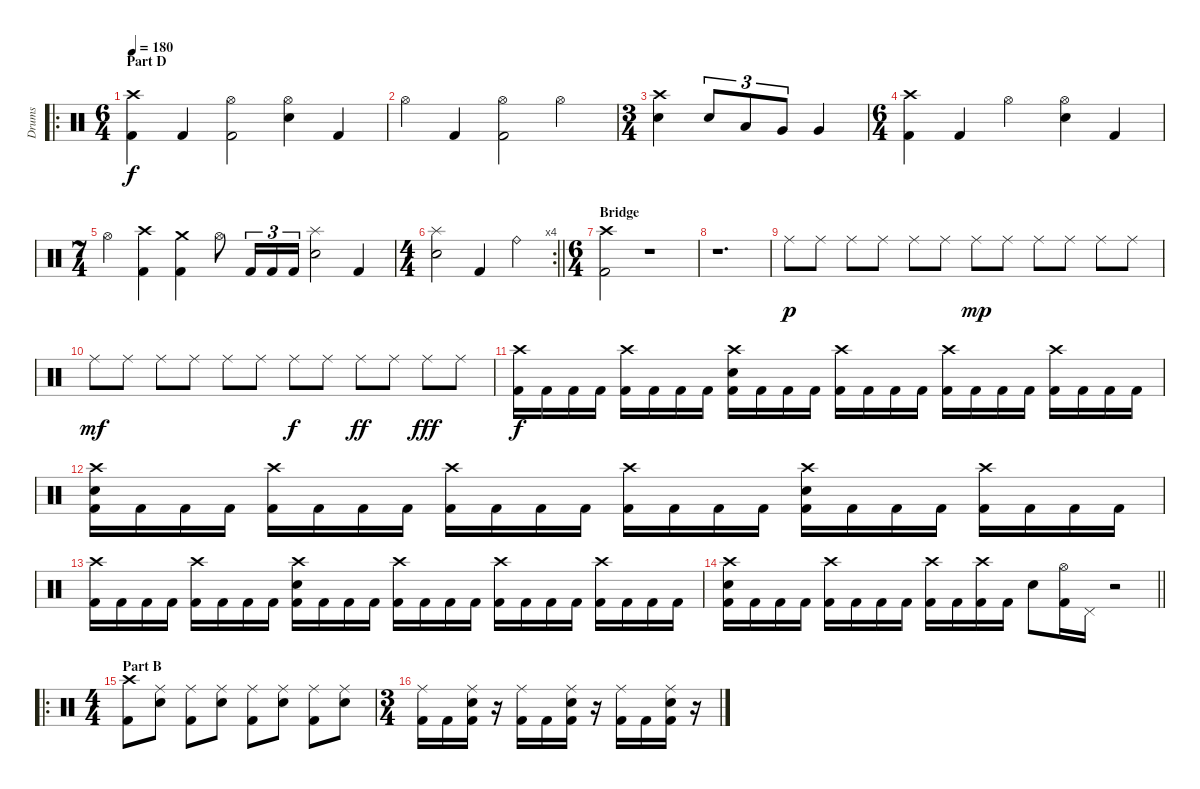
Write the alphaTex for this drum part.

\track ("Drums" "Drums") {instrument percussion}
\staff {score}
\articulation defaults
\ro
\ts (6 4)
\section ("" "Part D")
\tempo 180
\clef neutral
\ks c
("Crash high (hit)" "Kick (hit) 2").4{dy f} "Kick (hit) 2".4 ("Hi-Hat (open)" "Kick (hit) 2").2 ("Hi-Hat (open)" "Snare (hit) 2").4 "Kick (hit) 2".4 |
"Hi-Hat (open)".4 "Kick (hit) 2".4 ("Kick (hit) 2" "Hi-Hat (open)").2 "Hi-Hat (open)".2 |
\ts (3 4)
("Crash high (hit)" "Snare (hit) 2").4 "Snare (hit) 2".8{tu (3 2)} "Low Tom (hit)".8{tu (3 2)} "Very Low Tom (hit)".8{tu (3 2)} "Very Low Tom (hit)".4 |
\ts (6 4)
("Crash high (hit)" "Kick (hit) 2").4 "Kick (hit) 2".4 "Hi-Hat (open)".2 ("Hi-Hat (open)" "Snare (hit) 2").4 "Kick (hit) 2".4 |
\ts (7 4)
"Hi-Hat (open)".4 ("Kick (hit) 2" "Crash high (hit)").4 ("Kick (hit) 2" "Crash medium (hit)").4 "Hi-Hat (open)".8 "Kick (hit) 2".16{tu (3 2)} "Kick (hit) 2".16{tu (3 2)} "Kick (hit) 2".16{tu (3 2)} ("Snare (hit) 2" "Splash (hit)").2 "Kick (hit) 2".4 |
\rc 4
\ts (4 4)
\barLineRight lightlight
("Splash (hit)" "Snare (hit) 2").2 "Kick (hit) 2".4 "Ride (bell)".4 |
\ts (6 4)
\section ("" "Bridge")
("Kick (hit) 2" "Crash high (hit)").2 r.1 |
r.1{d} |
"Ride (middle)".8{dy p} "Ride (middle)".8 "Ride (middle)".8 "Ride (middle)".8 "Ride (middle)".8 "Ride (middle)".8 "Ride (middle)".8{dy mp} "Ride (middle)".8 "Ride (middle)".8 "Ride (middle)".8 "Ride (middle)".8 "Ride (middle)".8 |
"Ride (middle)".8{dy mf} "Ride (middle)".8 "Ride (middle)".8 "Ride (middle)".8 "Ride (middle)".8 "Ride (middle)".8 "Ride (middle)".8{dy f} "Ride (middle)".8 "Ride (middle)".8{dy ff} "Ride (middle)".8 "Ride (middle)".8{dy fff} "Ride (middle)".8 |
("Crash high (hit)" "Kick (hit) 2").16{dy f} "Kick (hit) 2".16 "Kick (hit) 2".16 "Kick (hit) 2".16 ("Kick (hit) 2" "Crash high (hit)").16 "Kick (hit) 2".16 "Kick (hit) 2".16 "Kick (hit) 2".16 ("Kick (hit) 2" "Crash high (hit)" "Snare (hit) 2").16 "Kick (hit) 2".16 "Kick (hit) 2".16 "Kick (hit) 2".16 ("Kick (hit) 2" "Crash high (hit)").16 "Kick (hit) 2".16 "Kick (hit) 2".16 "Kick (hit) 2".16 ("Kick (hit) 2" "Crash high (hit)").16 "Kick (hit) 2".16 "Kick (hit) 2".16 "Kick (hit) 2".16 ("Kick (hit) 2" "Crash high (hit)").16 "Kick (hit) 2".16 "Kick (hit) 2".16 "Kick (hit) 2".16 |
("Kick (hit) 2" "Crash high (hit)" "Snare (hit) 2").16 "Kick (hit) 2".16 "Kick (hit) 2".16 "Kick (hit) 2".16 ("Kick (hit) 2" "Crash high (hit)").16 "Kick (hit) 2".16 "Kick (hit) 2".16 "Kick (hit) 2".16 ("Kick (hit) 2" "Crash high (hit)").16 "Kick (hit) 2".16 "Kick (hit) 2".16 "Kick (hit) 2".16 ("Kick (hit) 2" "Crash high (hit)").16 "Kick (hit) 2".16 "Kick (hit) 2".16 "Kick (hit) 2".16 ("Kick (hit) 2" "Crash high (hit)" "Snare (hit) 2").16 "Kick (hit) 2".16 "Kick (hit) 2".16 "Kick (hit) 2".16 ("Kick (hit) 2" "Crash high (hit)").16 "Kick (hit) 2".16 "Kick (hit) 2".16 "Kick (hit) 2".16 |
("Crash high (hit)" "Kick (hit) 2").16 "Kick (hit) 2".16 "Kick (hit) 2".16 "Kick (hit) 2".16 ("Kick (hit) 2" "Crash high (hit)").16 "Kick (hit) 2".16 "Kick (hit) 2".16 "Kick (hit) 2".16 ("Kick (hit) 2" "Crash high (hit)" "Snare (hit) 2").16 "Kick (hit) 2".16 "Kick (hit) 2".16 "Kick (hit) 2".16 ("Kick (hit) 2" "Crash high (hit)").16 "Kick (hit) 2".16 "Kick (hit) 2".16 "Kick (hit) 2".16 ("Kick (hit) 2" "Crash high (hit)").16 "Kick (hit) 2".16 "Kick (hit) 2".16 "Kick (hit) 2".16 ("Kick (hit) 2" "Crash high (hit)").16 "Kick (hit) 2".16 "Kick (hit) 2".16 "Kick (hit) 2".16 |
\barLineRight lightlight
("Kick (hit) 2" "Crash high (hit)" "Snare (hit) 2").16 "Kick (hit) 2".16 "Kick (hit) 2".16 "Kick (hit) 2".16 ("Kick (hit) 2" "Crash high (hit)").16 "Kick (hit) 2".16 "Kick (hit) 2".16 "Kick (hit) 2".16 ("Kick (hit) 2" "Crash high (hit)").16 "Kick (hit) 2".16 ("Kick (hit) 2" "Crash high (hit)").16 "Kick (hit) 2".16 "Snare (hit) 2".8 ("Hi-Hat (open)" "Kick (hit) 2").16 "Pedal Hi-Hat (hit)".16 r.2 |
\ro
\ts (4 4)
\section ("" "Part B")
("Kick (hit) 2" "Crash high (hit)").8 ("Snare (hit) 2" "Ride (middle)").8 ("Kick (hit) 2" "Ride (middle)").8 ("Snare (hit) 2" "Ride (middle)").8 ("Kick (hit) 2" "Ride (middle)").8 ("Snare (hit) 2" "Ride (middle)").8 ("Kick (hit) 2" "Ride (middle)").8 ("Snare (hit) 2" "Ride (middle)").8 |
\ts (3 4)
("Kick (hit) 2" "Ride (middle)").16 "Kick (hit) 2".16 ("Kick (hit) 2" "Snare (hit) 2" "Ride (middle)").16 r.16 ("Kick (hit) 2" "Ride (middle)").16 "Kick (hit) 2".16 ("Kick (hit) 2" "Snare (hit) 2" "Ride (middle)").16 r.16 ("Kick (hit) 2" "Ride (middle)").16 "Kick (hit) 2".16 ("Kick (hit) 2" "Snare (hit) 2" "Ride (middle)").16 r.16
